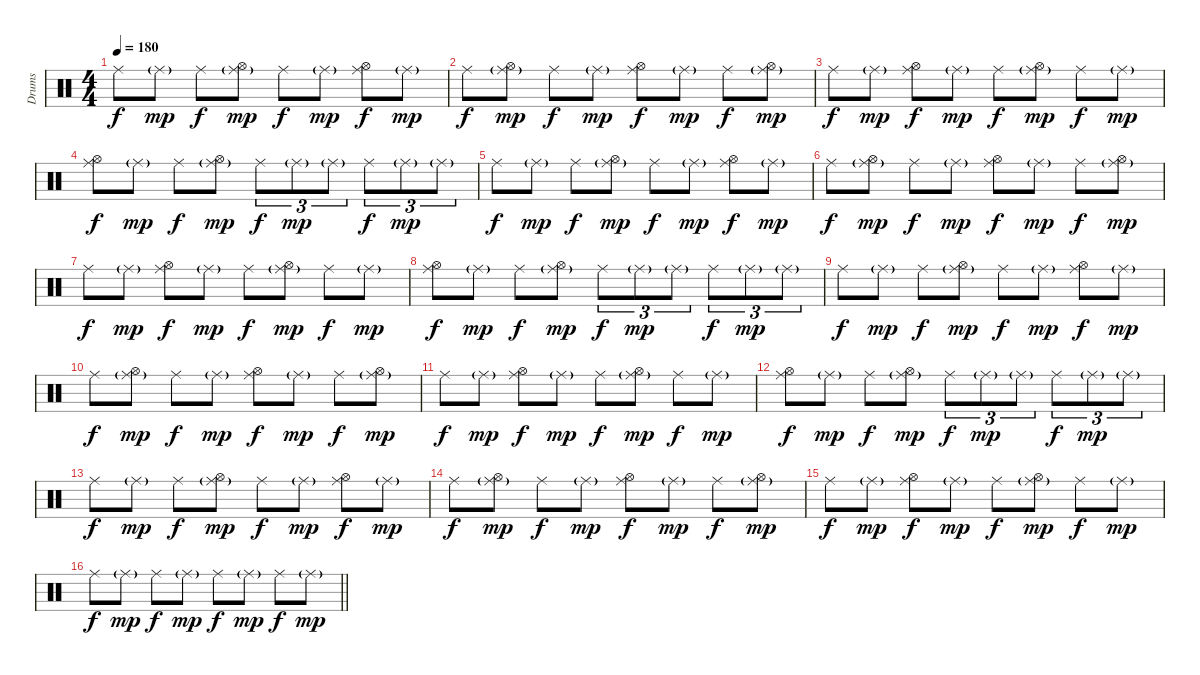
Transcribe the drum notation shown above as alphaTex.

\track ("Drums" "Drums") {instrument percussion}
\staff {score}
\articulation defaults
\ts (4 4)
\tempo 180
\clef neutral
\ks c "Ride (middle)".8{dy f} "Ride (middle)"{g}.8{dy mp} "Ride (middle)".8{dy f}
("Ride (middle)"{g} "Hi-Hat (open)").8{dy mp} "Ride (middle)".8{dy f} "Ride (middle)"{g}.8{dy mp} ("Ride (middle)" "Hi-Hat (open)").8{dy f} "Ride (middle)"{g}.8{dy mp} |
"Ride (middle)".8{dy f} ("Ride (middle)"{g} "Hi-Hat (open)").8{dy mp} "Ride (middle)".8{dy f} "Ride (middle)"{g}.8{dy mp} ("Ride (middle)" "Hi-Hat (open)").8{dy f} "Ride (middle)"{g}.8{dy mp} "Ride (middle)".8{dy f} ("Ride (middle)"{g} "Hi-Hat (open)").8{dy mp} |
"Ride (middle)".8{dy f} "Ride (middle)"{g}.8{dy mp} ("Ride (middle)" "Hi-Hat (open)").8{dy f} "Ride (middle)"{g}.8{dy mp} "Ride (middle)".8{dy f} ("Ride (middle)"{g} "Hi-Hat (open)").8{dy mp} "Ride (middle)".8{dy f} "Ride (middle)"{g}.8{dy mp} |
("Ride (middle)" "Hi-Hat (open)").8{dy f} "Ride (middle)"{g}.8{dy mp} "Ride (middle)".8{dy f} ("Ride (middle)"{g} "Hi-Hat (open)").8{dy mp} "Ride (middle)".8{tu (3 2) dy f} "Ride (middle)"{g}.8{tu (3 2) dy mp} "Ride (middle)"{g}.8{tu (3 2)} "Ride (middle)".8{tu (3 2) dy f} "Ride (middle)"{g}.8{tu (3 2) dy mp} "Ride (middle)"{g}.8{tu (3 2)} |
"Ride (middle)".8{dy f} "Ride (middle)"{g}.8{dy mp} "Ride (middle)".8{dy f} ("Ride (middle)"{g} "Hi-Hat (open)").8{dy mp} "Ride (middle)".8{dy f} "Ride (middle)"{g}.8{dy mp} ("Ride (middle)" "Hi-Hat (open)").8{dy f} "Ride (middle)"{g}.8{dy mp} |
"Ride (middle)".8{dy f} ("Ride (middle)"{g} "Hi-Hat (open)").8{dy mp} "Ride (middle)".8{dy f} "Ride (middle)"{g}.8{dy mp} ("Ride (middle)" "Hi-Hat (open)").8{dy f} "Ride (middle)"{g}.8{dy mp} "Ride (middle)".8{dy f} ("Ride (middle)"{g} "Hi-Hat (open)").8{dy mp} |
"Ride (middle)".8{dy f} "Ride (middle)"{g}.8{dy mp} ("Ride (middle)" "Hi-Hat (open)").8{dy f} "Ride (middle)"{g}.8{dy mp} "Ride (middle)".8{dy f} ("Ride (middle)"{g} "Hi-Hat (open)").8{dy mp} "Ride (middle)".8{dy f} "Ride (middle)"{g}.8{dy mp} |
("Ride (middle)" "Hi-Hat (open)").8{dy f} "Ride (middle)"{g}.8{dy mp} "Ride (middle)".8{dy f} ("Ride (middle)"{g} "Hi-Hat (open)").8{dy mp} "Ride (middle)".8{tu (3 2) dy f} "Ride (middle)"{g}.8{tu (3 2) dy mp} "Ride (middle)"{g}.8{tu (3 2)} "Ride (middle)".8{tu (3 2) dy f} "Ride (middle)"{g}.8{tu (3 2) dy mp} "Ride (middle)"{g}.8{tu (3 2)} |
"Ride (middle)".8{dy f} "Ride (middle)"{g}.8{dy mp} "Ride (middle)".8{dy f} ("Ride (middle)"{g} "Hi-Hat (open)").8{dy mp} "Ride (middle)".8{dy f} "Ride (middle)"{g}.8{dy mp} ("Ride (middle)" "Hi-Hat (open)").8{dy f} "Ride (middle)"{g}.8{dy mp} |
"Ride (middle)".8{dy f} ("Ride (middle)"{g} "Hi-Hat (open)").8{dy mp} "Ride (middle)".8{dy f} "Ride (middle)"{g}.8{dy mp} ("Ride (middle)" "Hi-Hat (open)").8{dy f} "Ride (middle)"{g}.8{dy mp} "Ride (middle)".8{dy f} ("Ride (middle)"{g} "Hi-Hat (open)").8{dy mp} |
"Ride (middle)".8{dy f} "Ride (middle)"{g}.8{dy mp} ("Ride (middle)" "Hi-Hat (open)").8{dy f} "Ride (middle)"{g}.8{dy mp} "Ride (middle)".8{dy f} ("Ride (middle)"{g} "Hi-Hat (open)").8{dy mp} "Ride (middle)".8{dy f} "Ride (middle)"{g}.8{dy mp} |
("Ride (middle)" "Hi-Hat (open)").8{dy f} "Ride (middle)"{g}.8{dy mp} "Ride (middle)".8{dy f} ("Ride (middle)"{g} "Hi-Hat (open)").8{dy mp} "Ride (middle)".8{tu (3 2) dy f} "Ride (middle)"{g}.8{tu (3 2) dy mp} "Ride (middle)"{g}.8{tu (3 2)} "Ride (middle)".8{tu (3 2) dy f} "Ride (middle)"{g}.8{tu (3 2) dy mp} "Ride (middle)"{g}.8{tu (3 2)} |
"Ride (middle)".8{dy f} "Ride (middle)"{g}.8{dy mp} "Ride (middle)".8{dy f} ("Ride (middle)"{g} "Hi-Hat (open)").8{dy mp} "Ride (middle)".8{dy f} "Ride (middle)"{g}.8{dy mp} ("Ride (middle)" "Hi-Hat (open)").8{dy f} "Ride (middle)"{g}.8{dy mp} |
"Ride (middle)".8{dy f} ("Ride (middle)"{g} "Hi-Hat (open)").8{dy mp} "Ride (middle)".8{dy f} "Ride (middle)"{g}.8{dy mp} ("Ride (middle)" "Hi-Hat (open)").8{dy f} "Ride (middle)"{g}.8{dy mp} "Ride (middle)".8{dy f} ("Ride (middle)"{g} "Hi-Hat (open)").8{dy mp} |
"Ride (middle)".8{dy f} "Ride (middle)"{g}.8{dy mp} ("Ride (middle)" "Hi-Hat (open)").8{dy f} "Ride (middle)"{g}.8{dy mp} "Ride (middle)".8{dy f} ("Ride (middle)"{g} "Hi-Hat (open)").8{dy mp} "Ride (middle)".8{dy f} "Ride (middle)"{g}.8{dy mp} |
\barLineRight lightlight "Ride (middle)".8{dy f} "Ride (middle)"{g}.8{dy mp} "Ride (middle)".8{dy f} "Ride (middle)"{g}.8{dy mp} "Ride (middle)".8{dy f} "Ride (middle)"{g}.8{dy mp} "Ride (middle)".8{dy f} "Ride (middle)"{g}.8{dy mp}
